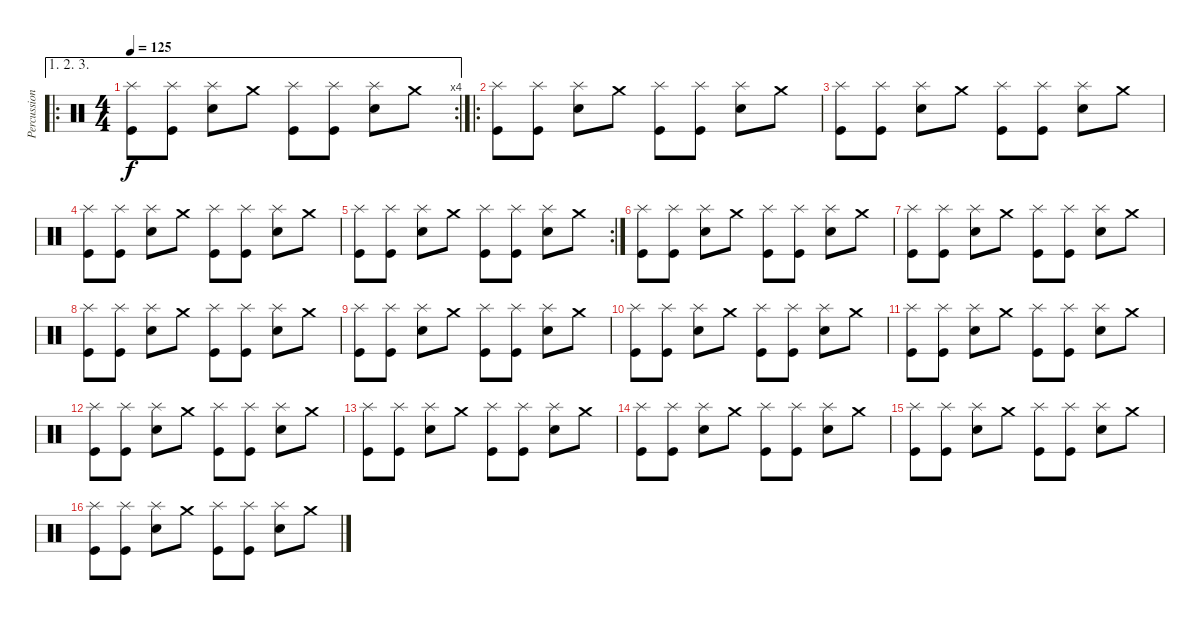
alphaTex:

\track ("Percussions" "Percussion") {instrument percussion}
\staff {score}
\articulation defaults
\ae (1 2 3)
\ro
\rc 4
\ts (4 4)
\tempo 125
\clef neutral
\ks c
("Kick (hit)" "Splash (hit)").8{dy f} ("Kick (hit)" "Splash (hit)").8 ("Electric Snare (hit)" "Splash (hit)").8 "Crash medium (hit)".8 ("Kick (hit)" "Splash (hit)").8 ("Kick (hit)" "Splash (hit)").8 ("Electric Snare (hit)" "Splash (hit)").8 "Crash medium (hit)".8 |
\ro
("Kick (hit)" "Splash (hit)").8 ("Kick (hit)" "Splash (hit)").8 ("Electric Snare (hit)" "Splash (hit)").8 "Crash medium (hit)".8 ("Kick (hit)" "Splash (hit)").8 ("Kick (hit)" "Splash (hit)").8 ("Electric Snare (hit)" "Splash (hit)").8 "Crash medium (hit)".8 |
("Kick (hit)" "Splash (hit)").8 ("Kick (hit)" "Splash (hit)").8 ("Electric Snare (hit)" "Splash (hit)").8 "Crash medium (hit)".8 ("Kick (hit)" "Splash (hit)").8 ("Kick (hit)" "Splash (hit)").8 ("Electric Snare (hit)" "Splash (hit)").8 "Crash medium (hit)".8 |
("Kick (hit)" "Splash (hit)").8 ("Kick (hit)" "Splash (hit)").8 ("Electric Snare (hit)" "Splash (hit)").8 "Crash medium (hit)".8 ("Kick (hit)" "Splash (hit)").8 ("Kick (hit)" "Splash (hit)").8 ("Electric Snare (hit)" "Splash (hit)").8 "Crash medium (hit)".8 |
\rc 2
("Kick (hit)" "Splash (hit)").8 ("Kick (hit)" "Splash (hit)").8 ("Electric Snare (hit)" "Splash (hit)").8 "Crash medium (hit)".8 ("Kick (hit)" "Splash (hit)").8 ("Kick (hit)" "Splash (hit)").8 ("Electric Snare (hit)" "Splash (hit)").8 "Crash medium (hit)".8 |
("Kick (hit)" "Splash (hit)").8 ("Kick (hit)" "Splash (hit)").8 ("Electric Snare (hit)" "Splash (hit)").8 "Crash medium (hit)".8 ("Kick (hit)" "Splash (hit)").8 ("Kick (hit)" "Splash (hit)").8 ("Electric Snare (hit)" "Splash (hit)").8 "Crash medium (hit)".8 |
("Kick (hit)" "Splash (hit)").8 ("Kick (hit)" "Splash (hit)").8 ("Electric Snare (hit)" "Splash (hit)").8 "Crash medium (hit)".8 ("Kick (hit)" "Splash (hit)").8 ("Kick (hit)" "Splash (hit)").8 ("Electric Snare (hit)" "Splash (hit)").8 "Crash medium (hit)".8 |
("Kick (hit)" "Splash (hit)").8 ("Kick (hit)" "Splash (hit)").8 ("Electric Snare (hit)" "Splash (hit)").8 "Crash medium (hit)".8 ("Kick (hit)" "Splash (hit)").8 ("Kick (hit)" "Splash (hit)").8 ("Electric Snare (hit)" "Splash (hit)").8 "Crash medium (hit)".8 |
("Kick (hit)" "Splash (hit)").8 ("Kick (hit)" "Splash (hit)").8 ("Electric Snare (hit)" "Splash (hit)").8 "Crash medium (hit)".8 ("Kick (hit)" "Splash (hit)").8 ("Kick (hit)" "Splash (hit)").8 ("Electric Snare (hit)" "Splash (hit)").8 "Crash medium (hit)".8 |
("Kick (hit)" "Splash (hit)").8 ("Kick (hit)" "Splash (hit)").8 ("Electric Snare (hit)" "Splash (hit)").8 "Crash medium (hit)".8 ("Kick (hit)" "Splash (hit)").8 ("Kick (hit)" "Splash (hit)").8 ("Electric Snare (hit)" "Splash (hit)").8 "Crash medium (hit)".8 |
("Kick (hit)" "Splash (hit)").8 ("Kick (hit)" "Splash (hit)").8 ("Electric Snare (hit)" "Splash (hit)").8 "Crash medium (hit)".8 ("Kick (hit)" "Splash (hit)").8 ("Kick (hit)" "Splash (hit)").8 ("Electric Snare (hit)" "Splash (hit)").8 "Crash medium (hit)".8 |
("Kick (hit)" "Splash (hit)").8 ("Kick (hit)" "Splash (hit)").8 ("Electric Snare (hit)" "Splash (hit)").8 "Crash medium (hit)".8 ("Kick (hit)" "Splash (hit)").8 ("Kick (hit)" "Splash (hit)").8 ("Electric Snare (hit)" "Splash (hit)").8 "Crash medium (hit)".8 |
("Kick (hit)" "Splash (hit)").8 ("Kick (hit)" "Splash (hit)").8 ("Electric Snare (hit)" "Splash (hit)").8 "Crash medium (hit)".8 ("Kick (hit)" "Splash (hit)").8 ("Kick (hit)" "Splash (hit)").8 ("Electric Snare (hit)" "Splash (hit)").8 "Crash medium (hit)".8 |
("Kick (hit)" "Splash (hit)").8 ("Kick (hit)" "Splash (hit)").8 ("Electric Snare (hit)" "Splash (hit)").8 "Crash medium (hit)".8 ("Kick (hit)" "Splash (hit)").8 ("Kick (hit)" "Splash (hit)").8 ("Electric Snare (hit)" "Splash (hit)").8 "Crash medium (hit)".8 |
("Kick (hit)" "Splash (hit)").8 ("Kick (hit)" "Splash (hit)").8 ("Electric Snare (hit)" "Splash (hit)").8 "Crash medium (hit)".8 ("Kick (hit)" "Splash (hit)").8 ("Kick (hit)" "Splash (hit)").8 ("Electric Snare (hit)" "Splash (hit)").8 "Crash medium (hit)".8 |
("Kick (hit)" "Splash (hit)").8 ("Kick (hit)" "Splash (hit)").8 ("Electric Snare (hit)" "Splash (hit)").8 "Crash medium (hit)".8 ("Kick (hit)" "Splash (hit)").8 ("Kick (hit)" "Splash (hit)").8 ("Electric Snare (hit)" "Splash (hit)").8 "Crash medium (hit)".8
